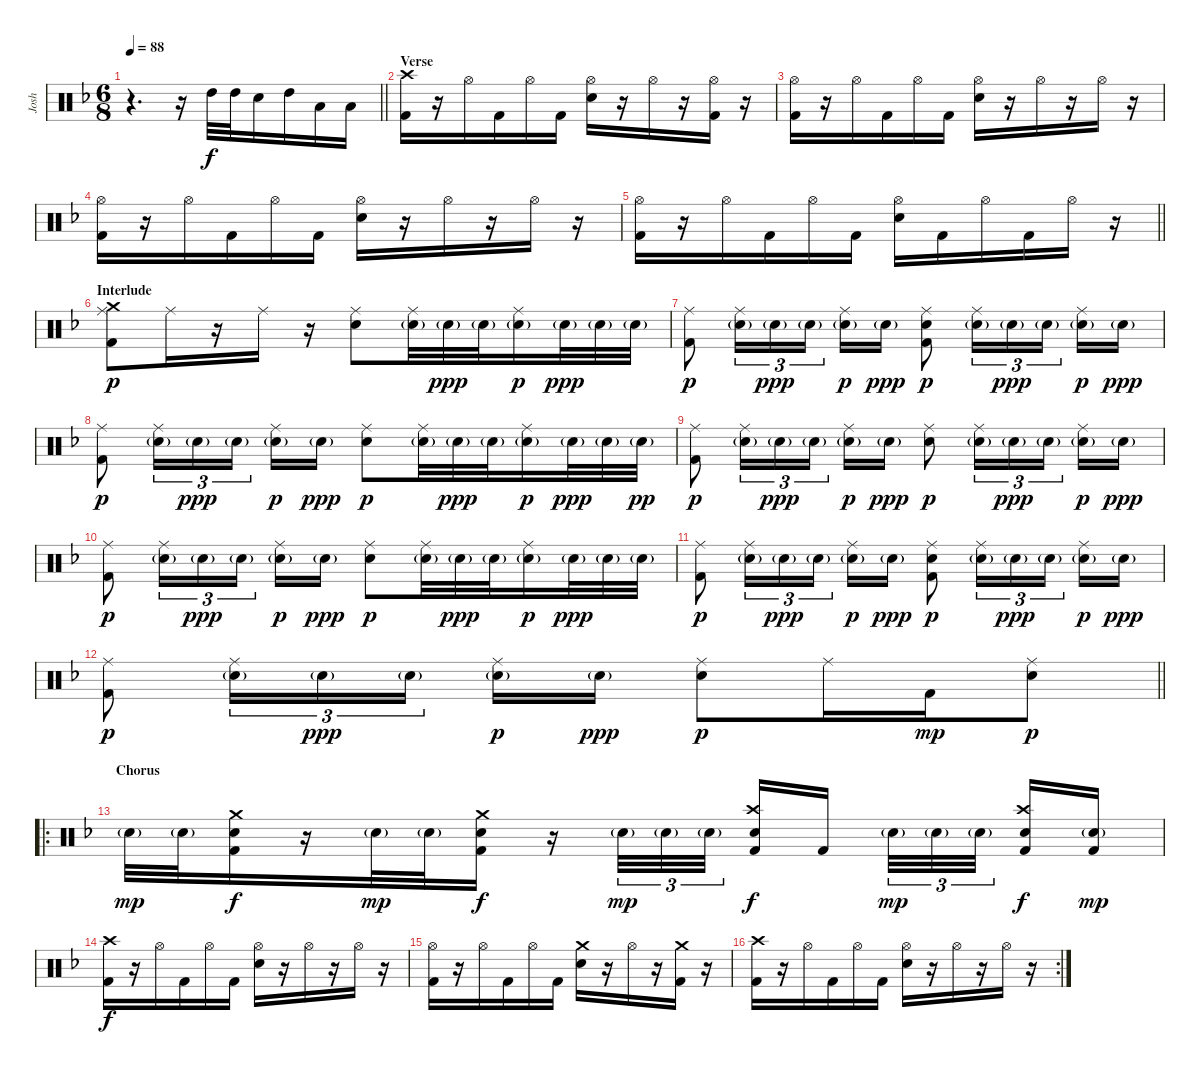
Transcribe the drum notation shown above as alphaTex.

\track ("Josh" "Josh") {instrument percussion}
\staff {score}
\articulation defaults
\ts (6 8)
\tempo 88
\clef neutral
\barLineRight lightlight
\ks f
r.4{d dy f} r.16 "High Tom (hit)".32 "High Tom (hit)".32 "Snare (hit) 2".16 "High Tom (hit)".16 "Low Tom (hit)".16 "Low Tom (hit)".16 |
\section ("" "Verse")
("Crash high (hit)" "Kick (hit) 2").16 r.16 "Hi-Hat (open)".16 "Kick (hit) 2".16 "Hi-Hat (open)".16 "Kick (hit) 2".16 ("Hi-Hat (open)" "Snare (hit) 2").16 r.16 "Hi-Hat (open)".16 r.16 ("Hi-Hat (open)" "Kick (hit) 2").16 r.16 |
("Hi-Hat (open)" "Kick (hit) 2").16 r.16 "Hi-Hat (open)".16 "Kick (hit) 2".16 "Hi-Hat (open)".16 "Kick (hit) 2".16 ("Hi-Hat (open)" "Snare (hit) 2").16 r.16 "Hi-Hat (open)".16 r.16 "Hi-Hat (open)".16 r.16 |
("Hi-Hat (open)" "Kick (hit) 2").16 r.16 "Hi-Hat (open)".16 "Kick (hit) 2".16 "Hi-Hat (open)".16 "Kick (hit) 2".16 ("Hi-Hat (open)" "Snare (hit) 2").16 r.16 "Hi-Hat (open)".16 r.16 "Hi-Hat (open)".16 r.16 |
\barLineRight lightlight
("Hi-Hat (open)" "Kick (hit) 2").16 r.16 "Hi-Hat (open)".16 "Kick (hit) 2".16 "Hi-Hat (open)".16 "Kick (hit) 2".16 ("Hi-Hat (open)" "Snare (hit) 2").16 "Kick (hit) 2".16 "Hi-Hat (open)".16 "Kick (hit) 2".16 "Hi-Hat (open)".16 r.16 |
\section ("" "Interlude")
("Crash medium (hit)" "Kick (hit) 2" "Ride (middle)").8{dy p} "Ride (middle)".16 r.16 "Ride (middle)".16 r.16 ("Snare (hit) 2" "Ride (middle)").8 ("Snare (hit) 2"{g} "Ride (middle)").32 "Snare (hit) 2"{g}.32{dy ppp} "Snare (hit) 2"{g}.32 ("Snare (hit) 2"{g} "Ride (middle)").16{dy p} "Snare (hit) 2"{g}.32{dy ppp} "Snare (hit) 2"{g}.32 "Snare (hit) 2"{g}.32 |
("Kick (hit) 2" "Ride (middle)").8{dy p} ("Snare (hit) 2"{g} "Ride (middle)").16{tu (3 2)} "Snare (hit) 2"{g}.16{tu (3 2) dy ppp} "Snare (hit) 2"{g}.16{tu (3 2) beam splitsecondary} ("Snare (hit) 2"{g} "Ride (middle)").16{dy p} "Snare (hit) 2"{g}.16{dy ppp} ("Snare (hit) 2" "Kick (hit) 2" "Ride (middle)").8{dy p} ("Snare (hit) 2"{g} "Ride (middle)").16{tu (3 2)} "Snare (hit) 2"{g}.16{tu (3 2) dy ppp} "Snare (hit) 2"{g}.16{tu (3 2) beam splitsecondary} ("Snare (hit) 2"{g} "Ride (middle)").16{dy p} "Snare (hit) 2"{g}.16{dy ppp} |
("Kick (hit) 2" "Ride (middle)").8{dy p} ("Snare (hit) 2"{g} "Ride (middle)").16{tu (3 2)} "Snare (hit) 2"{g}.16{tu (3 2) dy ppp} "Snare (hit) 2"{g}.16{tu (3 2) beam splitsecondary} ("Snare (hit) 2"{g} "Ride (middle)").16{dy p} "Snare (hit) 2"{g}.16{dy ppp} ("Snare (hit) 2" "Ride (middle)").8{dy p} ("Snare (hit) 2"{g} "Ride (middle)").32 "Snare (hit) 2"{g}.32{dy ppp} "Snare (hit) 2"{g}.32 ("Snare (hit) 2"{g} "Ride (middle)").16{dy p} "Snare (hit) 2"{g}.32{dy ppp} "Snare (hit) 2"{g}.32 "Snare (hit) 2"{g}.32{dy pp} |
("Kick (hit) 2" "Ride (middle)").8{dy p} ("Snare (hit) 2"{g} "Ride (middle)").16{tu (3 2)} "Snare (hit) 2"{g}.16{tu (3 2) dy ppp} "Snare (hit) 2"{g}.16{tu (3 2) beam splitsecondary} ("Snare (hit) 2"{g} "Ride (middle)").16{dy p} "Snare (hit) 2"{g}.16{dy ppp} ("Snare (hit) 2" "Ride (middle)").8{dy p} ("Snare (hit) 2"{g} "Ride (middle)").16{tu (3 2)} "Snare (hit) 2"{g}.16{tu (3 2) dy ppp} "Snare (hit) 2"{g}.16{tu (3 2) beam splitsecondary} ("Snare (hit) 2"{g} "Ride (middle)").16{dy p} "Snare (hit) 2"{g}.16{dy ppp} |
("Kick (hit) 2" "Ride (middle)").8{dy p} ("Snare (hit) 2"{g} "Ride (middle)").16{tu (3 2)} "Snare (hit) 2"{g}.16{tu (3 2) dy ppp} "Snare (hit) 2"{g}.16{tu (3 2) beam splitsecondary} ("Snare (hit) 2"{g} "Ride (middle)").16{dy p} "Snare (hit) 2"{g}.16{dy ppp} ("Snare (hit) 2" "Ride (middle)").8{dy p} ("Snare (hit) 2"{g} "Ride (middle)").32 "Snare (hit) 2"{g}.32{dy ppp} "Snare (hit) 2"{g}.32 ("Snare (hit) 2"{g} "Ride (middle)").16{dy p} "Snare (hit) 2"{g}.32{dy ppp} "Snare (hit) 2"{g}.32 "Snare (hit) 2"{g}.32 |
("Kick (hit) 2" "Ride (middle)").8{dy p} ("Snare (hit) 2"{g} "Ride (middle)").16{tu (3 2)} "Snare (hit) 2"{g}.16{tu (3 2) dy ppp} "Snare (hit) 2"{g}.16{tu (3 2) beam splitsecondary} ("Snare (hit) 2"{g} "Ride (middle)").16{dy p} "Snare (hit) 2"{g}.16{dy ppp} ("Snare (hit) 2" "Kick (hit) 2" "Ride (middle)").8{dy p} ("Snare (hit) 2"{g} "Ride (middle)").16{tu (3 2)} "Snare (hit) 2"{g}.16{tu (3 2) dy ppp} "Snare (hit) 2"{g}.16{tu (3 2) beam splitsecondary} ("Snare (hit) 2"{g} "Ride (middle)").16{dy p} "Snare (hit) 2"{g}.16{dy ppp} |
\barLineRight lightlight
("Kick (hit) 2" "Ride (middle)").8{dy p} ("Snare (hit) 2"{g} "Ride (middle)").16{tu (3 2)} "Snare (hit) 2"{g}.16{tu (3 2) dy ppp} "Snare (hit) 2"{g}.16{tu (3 2) beam splitsecondary} ("Snare (hit) 2"{g} "Ride (middle)").16{dy p} "Snare (hit) 2"{g}.16{dy ppp} ("Snare (hit) 2" "Ride (middle)").8{dy p} "Ride (middle)".16 "Kick (hit) 2".16{dy mp} ("Snare (hit) 2" "Ride (middle)").8{dy p} |
\ro
\section ("" "Chorus")
"Snare (hit) 2"{g}.32{dy mp} "Snare (hit) 2"{g}.32 ("Crash medium (hit)" "Snare (hit) 2" "Kick (hit) 2").16{dy f} r.16 "Snare (hit) 2"{g}.32{dy mp} "Snare (hit) 2"{g}.32 ("Crash medium (hit)" "Snare (hit) 2" "Kick (hit) 2").16{dy f} r.16 "Snare (hit) 2"{g}.32{tu (3 2) dy mp} "Snare (hit) 2"{g}.32{tu (3 2)} "Snare (hit) 2"{g}.32{tu (3 2) beam splitsecondary} ("Crash high (hit)" "Snare (hit) 2" "Kick (hit) 2").16{dy f} "Kick (hit) 2".16{beam splitsecondary} "Snare (hit) 2"{g}.32{tu (3 2) dy mp} "Snare (hit) 2"{g}.32{tu (3 2)} "Snare (hit) 2"{g}.32{tu (3 2) beam splitsecondary} ("Crash high (hit)" "Snare (hit) 2" "Kick (hit) 2").16{dy f} ("Snare (hit) 2"{g} "Kick (hit) 2").16{dy mp} |
("Crash high (hit)" "Kick (hit) 2").16{dy f} r.16 "Hi-Hat (open)".16 "Kick (hit) 2".16 "Hi-Hat (open)".16 "Kick (hit) 2".16 ("Hi-Hat (open)" "Snare (hit) 2").16 r.16 "Hi-Hat (open)".16 r.16 "Hi-Hat (open)".16 r.16 |
("Hi-Hat (open)" "Kick (hit) 2").16 r.16 "Hi-Hat (open)".16 "Kick (hit) 2".16 "Hi-Hat (open)".16 "Kick (hit) 2".16 ("Crash medium (hit)" "Snare (hit) 2").16 r.16 "Hi-Hat (open)".16 r.16 ("Crash medium (hit)" "Kick (hit) 2").16 r.16 |
\rc 2
("Crash high (hit)" "Kick (hit) 2").16 r.16 "Hi-Hat (open)".16 "Kick (hit) 2".16 "Hi-Hat (open)".16 "Kick (hit) 2".16 ("Hi-Hat (open)" "Snare (hit) 2").16 r.16 "Hi-Hat (open)".16 r.16 "Hi-Hat (open)".16 r.16
